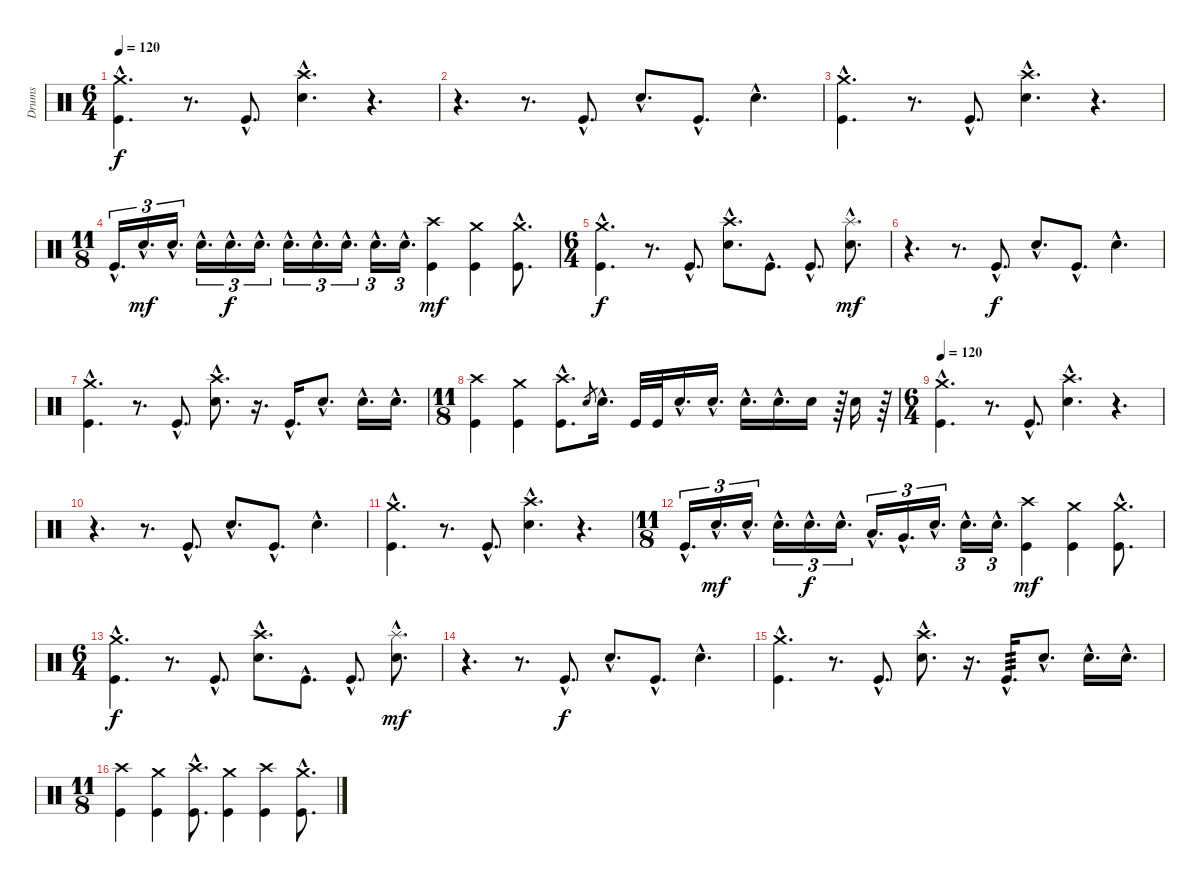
\track ("Drums" "Drums") {instrument percussion}
\staff {score}
\articulation defaults
\ts (6 4)
\section ("" "")
\tempo 120
\clef neutral
\ks c
("Crash medium (hit)"{hac} "Kick (hit)"{hac}).4{d dy f} r.8{d} "Kick (hit)"{hac}.8{d} ("Crash high (hit)"{hac} "Electric Snare (hit)"{hac}).4{d} r.4{d} |
r.4{d} r.8{d} "Kick (hit)"{hac}.8{d} "Electric Snare (hit)"{hac}.8{d} "Kick (hit)"{hac}.8{d} "Electric Snare (hit)"{hac}.4{d} |
("Crash medium (hit)"{hac} "Kick (hit)"{hac}).4{d} r.8{d} "Kick (hit)"{hac}.8{d} ("Crash high (hit)"{hac} "Electric Snare (hit)"{hac}).4{d} r.4{d} |
\ts (11 8)
"Kick (hit)"{hac}.16{d tu (3 2)} "Electric Snare (hit)"{hac}.16{d tu (3 2) dy mf} "Electric Snare (hit)"{hac}.16{d tu (3 2)} "Electric Snare (hit)"{hac}.16{d tu (3 2)} "Electric Snare (hit)"{hac}.16{d tu (3 2) dy f} "Electric Snare (hit)"{hac}.16{d tu (3 2)} "Electric Snare (hit)"{hac}.16{d tu (3 2)} "Electric Snare (hit)"{hac}.16{d tu (3 2)} "Electric Snare (hit)"{hac}.16{d tu (3 2)} "Electric Snare (hit)"{hac}.16{d tu (3 2)} "Electric Snare (hit)"{hac}.16{d tu (3 2)} ("Crash high (hit)" "Kick (hit)").4{dy mf} ("Crash medium (hit)" "Kick (hit)").4 ("Crash medium (hit)"{hac} "Kick (hit)"{hac}).8{d} |
\ts (6 4)
("Crash medium (hit)"{hac} "Kick (hit)"{hac}).4{d dy f} r.8{d} "Kick (hit)"{hac}.8{d} ("Crash high (hit)"{hac} "Electric Snare (hit)"{hac}).8{d} "Kick (hit)"{hac}.8{d} "Kick (hit)"{hac}.8{d} ("Splash (hit)"{hac} "Electric Snare (hit)"{hac}).8{d dy mf} |
r.4{d} r.8{d} "Kick (hit)"{hac}.8{d dy f} "Electric Snare (hit)"{hac}.8{d} "Kick (hit)"{hac}.8{d} "Electric Snare (hit)"{hac}.4{d} |
("Crash medium (hit)"{hac} "Kick (hit)"{hac}).4{d} r.8{d} "Kick (hit)"{hac}.8{d} ("Crash high (hit)"{hac} "Electric Snare (hit)"{hac}).8{d} r.16{d} "Kick (hit)"{hac}.16{d} "Electric Snare (hit)"{hac}.8{d} "Electric Snare (hit)"{hac}.16{d} "Electric Snare (hit)"{hac}.16{d} |
\ts (11 8)
("Crash high (hit)" "Kick (hit)").4 ("Crash medium (hit)" "Kick (hit)").4 ("Crash high (hit)"{hac} "Kick (hit)"{hac}).8{d} "Electric Snare (hit)".8{gr} "Electric Snare (hit)"{hac}.16{d} "Kick (hit)".32 "Kick (hit)".32 "Electric Snare (hit)"{hac}.16{d} "Electric Snare (hit)"{hac}.16{d} "Electric Snare (hit)"{hac}.16{d} "Electric Snare (hit)"{hac}.16{d} "Electric Snare (hit)".16 r.64 "Electric Snare (hit)".16 r.64 |
\ts (6 4)
\tempo 120
("Crash medium (hit)"{hac} "Kick (hit)"{hac}).4{d} r.8{d} "Kick (hit)"{hac}.8{d} ("Crash high (hit)"{hac} "Electric Snare (hit)"{hac}).4{d} r.4{d} |
r.4{d} r.8{d} "Kick (hit)"{hac}.8{d} "Electric Snare (hit)"{hac}.8{d} "Kick (hit)"{hac}.8{d} "Electric Snare (hit)"{hac}.4{d} |
("Crash medium (hit)"{hac} "Kick (hit)"{hac}).4{d} r.8{d} "Kick (hit)"{hac}.8{d} ("Crash high (hit)"{hac} "Electric Snare (hit)"{hac}).4{d} r.4{d} |
\ts (11 8)
"Kick (hit)"{hac}.16{d tu (3 2)} "Electric Snare (hit)"{hac}.16{d tu (3 2) dy mf} "Electric Snare (hit)"{hac}.16{d tu (3 2)} "Electric Snare (hit)"{hac}.16{d tu (3 2)} "Electric Snare (hit)"{hac}.16{d tu (3 2) dy f} "Electric Snare (hit)"{hac}.16{d tu (3 2)} "Low Tom (hit)"{hac}.16{d tu (3 2)} "Very Low Tom (hit)"{hac}.16{d tu (3 2)} "Electric Snare (hit)"{hac}.16{d tu (3 2)} "Electric Snare (hit)"{hac}.16{d tu (3 2)} "Electric Snare (hit)"{hac}.16{d tu (3 2)} ("Crash high (hit)" "Kick (hit)").4{dy mf} ("Crash medium (hit)" "Kick (hit)").4 ("Crash medium (hit)"{hac} "Kick (hit)"{hac}).8{d} |
\ts (6 4)
("Crash medium (hit)"{hac} "Kick (hit)"{hac}).4{d dy f} r.8{d} "Kick (hit)"{hac}.8{d} ("Crash high (hit)"{hac} "Electric Snare (hit)"{hac}).8{d} "Kick (hit)"{hac}.8{d} "Kick (hit)"{hac}.8{d} ("Splash (hit)"{hac} "Electric Snare (hit)"{hac}).8{d dy mf} |
r.4{d} r.8{d} "Kick (hit)"{hac}.8{d dy f} "Electric Snare (hit)"{hac}.8{d} "Kick (hit)"{hac}.8{d} "Electric Snare (hit)"{hac}.4{d} |
("Crash medium (hit)"{hac} "Kick (hit)"{hac}).4{d} r.8{d} "Kick (hit)"{hac}.8{d} ("Crash high (hit)"{hac} "Electric Snare (hit)"{hac}).8{d} r.16{d} "Kick (hit)"{hac}.16{d tp 3} "Electric Snare (hit)"{hac}.8{d} "Electric Snare (hit)"{hac}.16{d} "Electric Snare (hit)"{hac}.16{d} |
\ts (11 8)
("Crash high (hit)" "Kick (hit)").4 ("Crash medium (hit)" "Kick (hit)").4 ("Crash high (hit)"{hac} "Kick (hit)"{hac}).8{d} ("Crash medium (hit)" "Kick (hit)").4 ("Crash high (hit)" "Kick (hit)").4 ("Crash medium (hit)"{hac} "Kick (hit)"{hac}).8{d}
